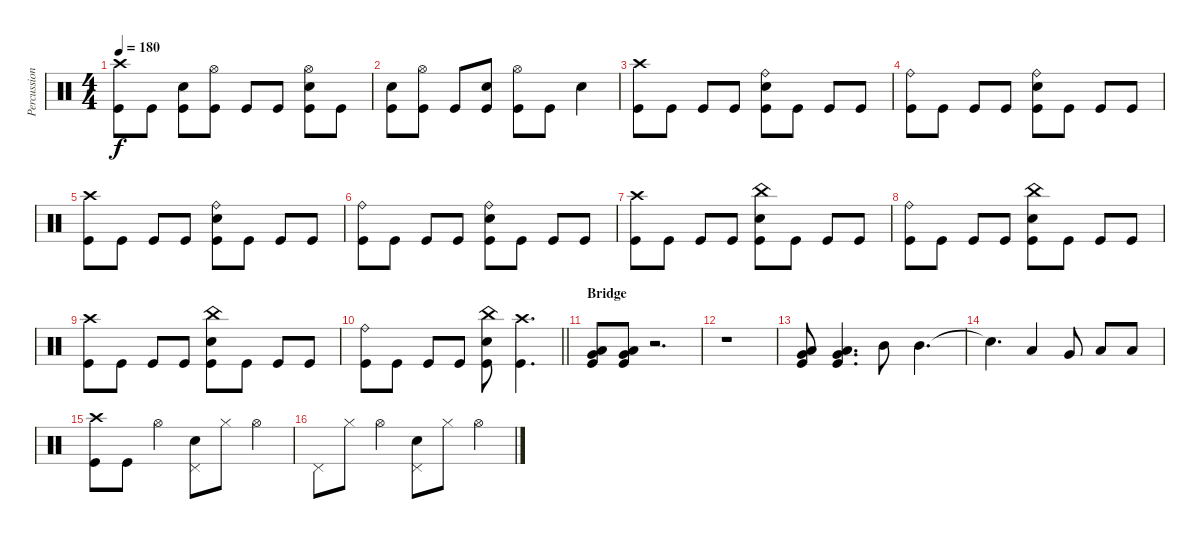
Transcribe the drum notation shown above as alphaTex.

\track ("Percussion" "Percussion") {instrument percussion}
\staff {score}
\articulation defaults
\ts (4 4)
\tempo 180
\clef neutral
\ks c
("Crash high (hit)" "Kick (hit)").8{dy f} "Kick (hit)".8 ("Electric Snare (hit)" "Kick (hit)").8 ("Hi-Hat (open)" "Kick (hit)").8 "Kick (hit)".8 "Kick (hit)".8 ("Hi-Hat (open)" "Electric Snare (hit)" "Kick (hit)").8 "Kick (hit)".8 |
("Electric Snare (hit)" "Kick (hit)").8 ("Hi-Hat (open)" "Kick (hit)").8 "Kick (hit)".8 ("Electric Snare (hit)" "Kick (hit)").8 ("Hi-Hat (open)" "Kick (hit)").8 "Kick (hit)".8 "Electric Snare (hit)".4 |
("Crash high (hit)" "Kick (hit)").8 "Kick (hit)".8 "Kick (hit)".8 "Kick (hit)".8 ("Ride (bell)" "Electric Snare (hit)" "Kick (hit)").8 "Kick (hit)".8 "Kick (hit)".8 "Kick (hit)".8 |
("Ride (bell)" "Kick (hit)").8 "Kick (hit)".8 "Kick (hit)".8 "Kick (hit)".8 ("Ride (bell)" "Electric Snare (hit)" "Kick (hit)").8 "Kick (hit)".8 "Kick (hit)".8 "Kick (hit)".8 |
("Crash high (hit)" "Kick (hit)").8 "Kick (hit)".8 "Kick (hit)".8 "Kick (hit)".8 ("Ride (bell)" "Electric Snare (hit)" "Kick (hit)").8 "Kick (hit)".8 "Kick (hit)".8 "Kick (hit)".8 |
("Ride (bell)" "Kick (hit)").8 "Kick (hit)".8 "Kick (hit)".8 "Kick (hit)".8 ("Ride (bell)" "Electric Snare (hit)" "Kick (hit)").8 "Kick (hit)".8 "Kick (hit)".8 "Kick (hit)".8 |
("Crash high (hit)" "Kick (hit)").8 "Kick (hit)".8 "Kick (hit)".8 "Kick (hit)".8 ("China (hit)" "Electric Snare (hit)" "Kick (hit)").8 "Kick (hit)".8 "Kick (hit)".8 "Kick (hit)".8 |
("Ride (bell)" "Kick (hit)").8 "Kick (hit)".8 "Kick (hit)".8 "Kick (hit)".8 ("China (hit)" "Electric Snare (hit)" "Kick (hit)").8 "Kick (hit)".8 "Kick (hit)".8 "Kick (hit)".8 |
("Crash high (hit)" "Kick (hit)").8 "Kick (hit)".8 "Kick (hit)".8 "Kick (hit)".8 ("China (hit)" "Electric Snare (hit)" "Kick (hit)").8 "Kick (hit)".8 "Kick (hit)".8 "Kick (hit)".8 |
\barLineRight lightlight
("Ride (bell)" "Kick (hit)").8 "Kick (hit)".8 "Kick (hit)".8 "Kick (hit)".8 ("China (hit)" "Electric Snare (hit)" "Kick (hit)").8 ("Crash high (hit)" "Kick (hit)").4{d} |
\section ("" "Bridge")
("Very Low Tom (hit)" "Low Floor Tom (hit)" "Kick (hit)").8 ("Very Low Tom (hit)" "Low Floor Tom (hit)" "Kick (hit)").8 r.2{d} |
r.1 |
("Very Low Tom (hit)" "Low Floor Tom (hit)" "Kick (hit)").8 ("Very Low Tom (hit)" "Low Floor Tom (hit)" "Kick (hit)").4{d} "Mid Tom (hit)".8 "Mid Tom (hit)".4{d} |
"Snare (hit)"{t}.4{d} "Low Tom (hit)".4 "Very Low Tom (hit)".8 "Low Floor Tom (hit)".8 "Low Floor Tom (hit)".8 |
("Crash high (hit)" "Kick (hit)").8 "Kick (hit)".8 "Hi-Hat (open)".4 ("Pedal Hi-Hat (hit)" "Electric Snare (hit)").8 "Hi-Hat (closed)".8 "Hi-Hat (open)".4 |
"Pedal Hi-Hat (hit)".8 "Hi-Hat (closed)".8 "Hi-Hat (open)".4 ("Pedal Hi-Hat (hit)" "Electric Snare (hit)").8 "Hi-Hat (closed)".8 "Hi-Hat (open)".4
